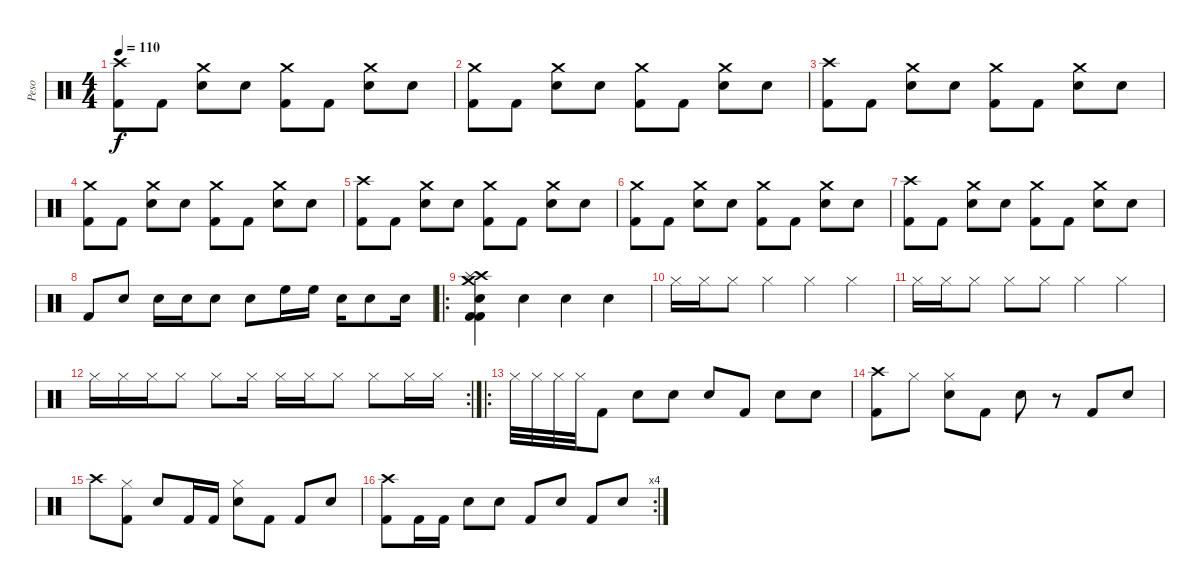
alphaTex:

\track ("Peso" "Peso") {instrument percussion}
\staff {score}
\articulation defaults
\ts (4 4)
\tempo 110
\clef neutral
\ks c
("Crash high (hit)" "Kick (hit) 2").8{dy f} "Kick (hit) 2".8 ("Crash medium (hit)" "Snare (hit) 2").8 "Snare (hit) 2".8 ("Crash medium (hit)" "Kick (hit) 2").8 "Kick (hit) 2".8 ("Crash medium (hit)" "Snare (hit) 2").8 "Snare (hit) 2".8 |
("Crash medium (hit)" "Kick (hit) 2").8 "Kick (hit) 2".8 ("Crash medium (hit)" "Snare (hit) 2").8 "Snare (hit) 2".8 ("Crash medium (hit)" "Kick (hit) 2").8 "Kick (hit) 2".8 ("Crash medium (hit)" "Snare (hit) 2").8 "Snare (hit) 2".8 |
("Crash high (hit)" "Kick (hit) 2").8 "Kick (hit) 2".8 ("Crash medium (hit)" "Snare (hit) 2").8 "Snare (hit) 2".8 ("Crash medium (hit)" "Kick (hit) 2").8 "Kick (hit) 2".8 ("Crash medium (hit)" "Snare (hit) 2").8 "Snare (hit) 2".8 |
("Crash medium (hit)" "Kick (hit) 2").8 "Kick (hit) 2".8 ("Crash medium (hit)" "Snare (hit) 2").8 "Snare (hit) 2".8 ("Crash medium (hit)" "Kick (hit) 2").8 "Kick (hit) 2".8 ("Crash medium (hit)" "Snare (hit) 2").8 "Snare (hit) 2".8 |
("Crash high (hit)" "Kick (hit) 2").8 "Kick (hit) 2".8 ("Crash medium (hit)" "Snare (hit) 2").8 "Snare (hit) 2".8 ("Crash medium (hit)" "Kick (hit) 2").8 "Kick (hit) 2".8 ("Crash medium (hit)" "Snare (hit) 2").8 "Snare (hit) 2".8 |
("Crash medium (hit)" "Kick (hit) 2").8 "Kick (hit) 2".8 ("Crash medium (hit)" "Snare (hit) 2").8 "Snare (hit) 2".8 ("Crash medium (hit)" "Kick (hit) 2").8 "Kick (hit) 2".8 ("Crash medium (hit)" "Snare (hit) 2").8 "Snare (hit) 2".8 |
("Crash high (hit)" "Kick (hit) 2").8 "Kick (hit) 2".8 ("Crash medium (hit)" "Snare (hit) 2").8 "Snare (hit) 2".8 ("Crash medium (hit)" "Kick (hit) 2").8 "Kick (hit) 2".8 ("Crash medium (hit)" "Snare (hit) 2").8 "Snare (hit) 2".8 |
"Kick (hit) 2".8 "Snare (hit) 2".8 "Snare (hit) 2".16 "Snare (hit) 2".16 "Snare (hit) 2".8 "Snare (hit) 2".8 "High Floor Tom (hit)".16 "High Floor Tom (hit)".16 "Snare (hit) 2".16 "Snare (hit) 2".8 "Snare (hit) 2".16 |
\ro
("Crash high (hit)" "Crash medium (hit)" "Splash (hit)" "Snare (hit) 2" "Kick (hit) 2" "Kick (hit) 2").4 "Snare (hit)"{x}.4 "Snare (hit)"{x}.4 "Snare (hit)"{x}.4 |
"Hi-Hat (closed)".16 "Hi-Hat (closed)".16 "Hi-Hat (closed)".8 "Hi-Hat (closed)".4 "Hi-Hat (closed)".4 "Hi-Hat (closed)".4 |
"Hi-Hat (closed)".16 "Hi-Hat (closed)".16 "Hi-Hat (closed)".8 "Hi-Hat (closed)".8 "Hi-Hat (closed)".8 "Hi-Hat (closed)".4 "Hi-Hat (closed)".4 |
\rc 2 "Hi-Hat (closed)".16 "Hi-Hat (closed)".16 "Hi-Hat (closed)".16 "Hi-Hat (closed)".8 "Hi-Hat (closed)".8 "Hi-Hat (closed)".16 "Hi-Hat (closed)".16 "Hi-Hat (closed)".16 "Hi-Hat (closed)".8 "Hi-Hat (closed)".8 "Hi-Hat (closed)".16 "Hi-Hat (closed)".16
|
\ro "Hi-Hat (closed)".32 "Hi-Hat (closed)"{x}.32 "Hi-Hat (closed)".32 "Hi-Hat (closed)"{x}.32 "Kick (hit) 2".8 "Snare (hit)"{x}.8 "Snare (hit) 2".8 "Snare (hit) 2".8 "Kick (hit) 2".8 "Snare (hit) 2".8 "Snare (hit)"{x}.8
|
("Crash high (hit)" "Kick (hit) 2").8 "Hi-Hat (closed)".8 ("Hi-Hat (closed)" "Snare (hit) 2").8 "Kick (hit) 2".8 "Snare (hit) 2".8 r.8 "Kick (hit) 2".8 "Snare (hit) 2".8 |
"Crash high (hit)".8 ("Hi-Hat (closed)" "Kick (hit) 2").8 "Snare (hit) 2".8 "Kick (hit) 2".16 "Kick (hit) 2".16 ("Hi-Hat (closed)" "Snare (hit) 2").8 "Kick (hit) 2".8 "Kick (hit) 2".8 "Snare (hit) 2".8 |
\rc 4
("Crash high (hit)" "Kick (hit) 2").8 "Kick (hit) 2".16 "Kick (hit) 2".16 "Snare (hit) 2".8 "Snare (hit) 2".8 "Kick (hit) 2".8 "Snare (hit) 2".8 "Kick (hit) 2".8 "Snare (hit) 2".8
